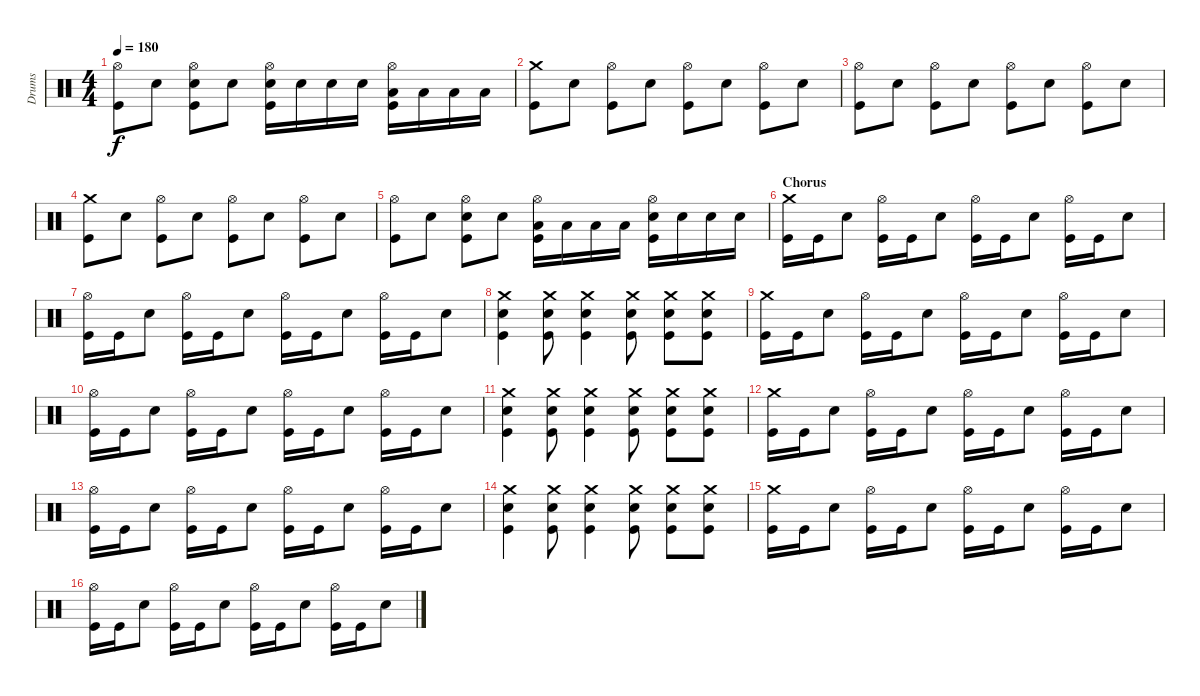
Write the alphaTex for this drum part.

\track ("Drums" "Drums") {instrument percussion}
\staff {score}
\articulation defaults
\ts (4 4)
\tempo 180
\clef neutral
\ks c
("Hi-Hat (open)" "Kick (hit)").8{dy f} "Snare (hit) 2".8 ("Hi-Hat (open)" "Snare (hit) 2" "Kick (hit)").8 "Snare (hit) 2".8 ("Hi-Hat (open)" "Snare (hit) 2" "Kick (hit)").16 "Snare (hit) 2".16 "Snare (hit) 2".16 "Snare (hit) 2".16 ("Hi-Hat (open)" "Low Tom (hit)" "Kick (hit)").16 "Low Tom (hit)".16 "Low Tom (hit)".16 "Low Tom (hit)".16 |
("Crash medium (hit)" "Kick (hit)").8 "Snare (hit) 2".8 ("Hi-Hat (open)" "Kick (hit)").8 "Snare (hit) 2".8 ("Hi-Hat (open)" "Kick (hit)").8 "Snare (hit) 2".8 ("Hi-Hat (open)" "Kick (hit)").8 "Snare (hit) 2".8 |
("Hi-Hat (open)" "Kick (hit)").8 "Snare (hit) 2".8 ("Hi-Hat (open)" "Kick (hit)").8 "Snare (hit) 2".8 ("Hi-Hat (open)" "Kick (hit)").8 "Snare (hit) 2".8 ("Hi-Hat (open)" "Kick (hit)").8 "Snare (hit) 2".8 |
("Crash medium (hit)" "Kick (hit)").8 "Snare (hit) 2".8 ("Hi-Hat (open)" "Kick (hit)").8 "Snare (hit) 2".8 ("Hi-Hat (open)" "Kick (hit)").8 "Snare (hit) 2".8 ("Hi-Hat (open)" "Kick (hit)").8 "Snare (hit) 2".8 |
("Hi-Hat (open)" "Kick (hit)").8 "Snare (hit) 2".8 ("Hi-Hat (open)" "Snare (hit) 2" "Kick (hit)").8 "Snare (hit) 2".8 ("Hi-Hat (open)" "Low Tom (hit)" "Kick (hit)").16 "Low Tom (hit)".16 "Low Tom (hit)".16 "Low Tom (hit)".16 ("Hi-Hat (open)" "Snare (hit) 2" "Kick (hit)").16 "Snare (hit) 2".16 "Snare (hit) 2".16 "Snare (hit) 2".16 |
\section ("" "Chorus")
("Crash medium (hit)" "Kick (hit)").16 "Kick (hit)".16 "Snare (hit) 2".8 ("Hi-Hat (open)" "Kick (hit)").16 "Kick (hit)".16 "Snare (hit) 2".8 ("Hi-Hat (open)" "Kick (hit)").16 "Kick (hit)".16 "Snare (hit) 2".8 ("Hi-Hat (open)" "Kick (hit)").16 "Kick (hit)".16 "Snare (hit) 2".8 |
("Hi-Hat (open)" "Kick (hit)").16 "Kick (hit)".16 "Snare (hit) 2".8 ("Hi-Hat (open)" "Kick (hit)").16 "Kick (hit)".16 "Snare (hit) 2".8 ("Hi-Hat (open)" "Kick (hit)").16 "Kick (hit)".16 "Snare (hit) 2".8 ("Hi-Hat (open)" "Kick (hit)").16 "Kick (hit)".16 "Snare (hit) 2".8 |
("Crash medium (hit)" "Snare (hit) 2" "Kick (hit)").4 ("Crash medium (hit)" "Snare (hit) 2" "Kick (hit)").8 ("Crash medium (hit)" "Snare (hit) 2" "Kick (hit)").4 ("Crash medium (hit)" "Snare (hit) 2" "Kick (hit)").8 ("Crash medium (hit)" "Snare (hit) 2" "Kick (hit)").8 ("Crash medium (hit)" "Snare (hit) 2" "Kick (hit)").8 |
("Crash medium (hit)" "Kick (hit)").16 "Kick (hit)".16 "Snare (hit) 2".8 ("Hi-Hat (open)" "Kick (hit)").16 "Kick (hit)".16 "Snare (hit) 2".8 ("Hi-Hat (open)" "Kick (hit)").16 "Kick (hit)".16 "Snare (hit) 2".8 ("Hi-Hat (open)" "Kick (hit)").16 "Kick (hit)".16 "Snare (hit) 2".8 |
("Hi-Hat (open)" "Kick (hit)").16 "Kick (hit)".16 "Snare (hit) 2".8 ("Hi-Hat (open)" "Kick (hit)").16 "Kick (hit)".16 "Snare (hit) 2".8 ("Hi-Hat (open)" "Kick (hit)").16 "Kick (hit)".16 "Snare (hit) 2".8 ("Hi-Hat (open)" "Kick (hit)").16 "Kick (hit)".16 "Snare (hit) 2".8 |
("Crash medium (hit)" "Snare (hit) 2" "Kick (hit)").4 ("Crash medium (hit)" "Snare (hit) 2" "Kick (hit)").8 ("Crash medium (hit)" "Snare (hit) 2" "Kick (hit)").4 ("Crash medium (hit)" "Snare (hit) 2" "Kick (hit)").8 ("Crash medium (hit)" "Snare (hit) 2" "Kick (hit)").8 ("Crash medium (hit)" "Snare (hit) 2" "Kick (hit)").8 |
("Crash medium (hit)" "Kick (hit)").16 "Kick (hit)".16 "Snare (hit) 2".8 ("Hi-Hat (open)" "Kick (hit)").16 "Kick (hit)".16 "Snare (hit) 2".8 ("Hi-Hat (open)" "Kick (hit)").16 "Kick (hit)".16 "Snare (hit) 2".8 ("Hi-Hat (open)" "Kick (hit)").16 "Kick (hit)".16 "Snare (hit) 2".8 |
("Hi-Hat (open)" "Kick (hit)").16 "Kick (hit)".16 "Snare (hit) 2".8 ("Hi-Hat (open)" "Kick (hit)").16 "Kick (hit)".16 "Snare (hit) 2".8 ("Hi-Hat (open)" "Kick (hit)").16 "Kick (hit)".16 "Snare (hit) 2".8 ("Hi-Hat (open)" "Kick (hit)").16 "Kick (hit)".16 "Snare (hit) 2".8 |
("Crash medium (hit)" "Snare (hit) 2" "Kick (hit)").4 ("Crash medium (hit)" "Snare (hit) 2" "Kick (hit)").8 ("Crash medium (hit)" "Snare (hit) 2" "Kick (hit)").4 ("Crash medium (hit)" "Snare (hit) 2" "Kick (hit)").8 ("Crash medium (hit)" "Snare (hit) 2" "Kick (hit)").8 ("Crash medium (hit)" "Snare (hit) 2" "Kick (hit)").8 |
("Crash medium (hit)" "Kick (hit)").16 "Kick (hit)".16 "Snare (hit) 2".8 ("Hi-Hat (open)" "Kick (hit)").16 "Kick (hit)".16 "Snare (hit) 2".8 ("Hi-Hat (open)" "Kick (hit)").16 "Kick (hit)".16 "Snare (hit) 2".8 ("Hi-Hat (open)" "Kick (hit)").16 "Kick (hit)".16 "Snare (hit) 2".8 |
("Hi-Hat (open)" "Kick (hit)").16 "Kick (hit)".16 "Snare (hit) 2".8 ("Hi-Hat (open)" "Kick (hit)").16 "Kick (hit)".16 "Snare (hit) 2".8 ("Hi-Hat (open)" "Kick (hit)").16 "Kick (hit)".16 "Snare (hit) 2".8 ("Hi-Hat (open)" "Kick (hit)").16 "Kick (hit)".16 "Snare (hit) 2".8
